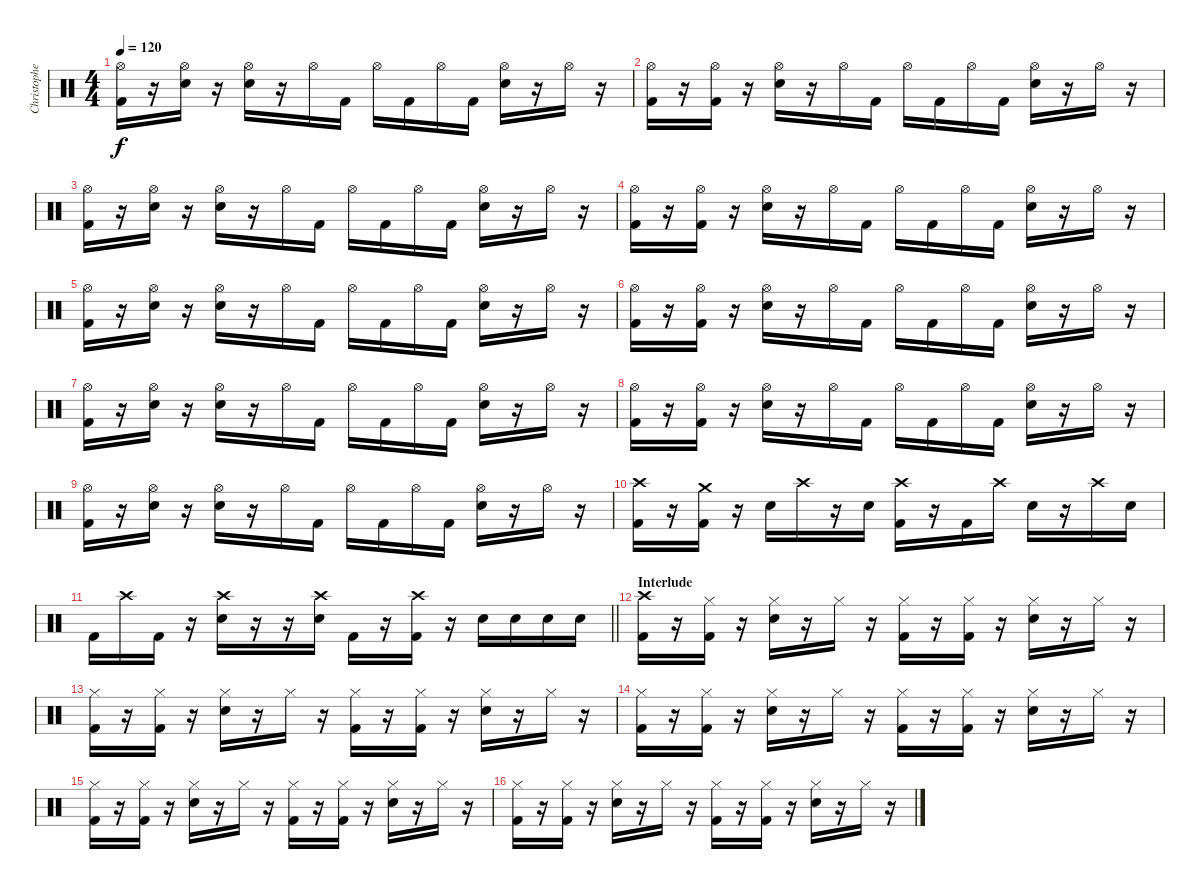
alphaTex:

\track ("Christopher - Drums" "Christophe") {instrument percussion}
\staff {score}
\articulation defaults
\ts (4 4)
\tempo 120
\clef neutral
\ks c
("Hi-Hat (open)" "Kick (hit) 2").16{dy f} r.16 ("Hi-Hat (open)" "Electric Snare (hit)").16 r.16 ("Hi-Hat (open)" "Electric Snare (hit)").16 r.16 "Hi-Hat (open)".16 "Kick (hit) 2".16 "Hi-Hat (open)".16 "Kick (hit) 2".16 "Hi-Hat (open)".16 "Kick (hit) 2".16 ("Hi-Hat (open)" "Electric Snare (hit)").16 r.16 "Hi-Hat (open)".16 r.16 |
("Hi-Hat (open)" "Kick (hit) 2").16 r.16 ("Hi-Hat (open)" "Kick (hit) 2").16 r.16 ("Hi-Hat (open)" "Electric Snare (hit)").16 r.16 "Hi-Hat (open)".16 "Kick (hit) 2".16 "Hi-Hat (open)".16 "Kick (hit) 2".16 "Hi-Hat (open)".16 "Kick (hit) 2".16 ("Hi-Hat (open)" "Electric Snare (hit)").16 r.16 "Hi-Hat (open)".16 r.16 |
("Hi-Hat (open)" "Kick (hit) 2").16 r.16 ("Hi-Hat (open)" "Electric Snare (hit)").16 r.16 ("Hi-Hat (open)" "Electric Snare (hit)").16 r.16 "Hi-Hat (open)".16 "Kick (hit) 2".16 "Hi-Hat (open)".16 "Kick (hit) 2".16 "Hi-Hat (open)".16 "Kick (hit) 2".16 ("Hi-Hat (open)" "Electric Snare (hit)").16 r.16 "Hi-Hat (open)".16 r.16 |
("Hi-Hat (open)" "Kick (hit) 2").16 r.16 ("Hi-Hat (open)" "Kick (hit) 2").16 r.16 ("Hi-Hat (open)" "Electric Snare (hit)").16 r.16 "Hi-Hat (open)".16 "Kick (hit) 2".16 "Hi-Hat (open)".16 "Kick (hit) 2".16 "Hi-Hat (open)".16 "Kick (hit) 2".16 ("Hi-Hat (open)" "Electric Snare (hit)").16 r.16 "Hi-Hat (open)".16 r.16 |
("Hi-Hat (open)" "Kick (hit) 2").16 r.16 ("Hi-Hat (open)" "Electric Snare (hit)").16 r.16 ("Hi-Hat (open)" "Electric Snare (hit)").16 r.16 "Hi-Hat (open)".16 "Kick (hit) 2".16 "Hi-Hat (open)".16 "Kick (hit) 2".16 "Hi-Hat (open)".16 "Kick (hit) 2".16 ("Hi-Hat (open)" "Electric Snare (hit)").16 r.16 "Hi-Hat (open)".16 r.16 |
("Hi-Hat (open)" "Kick (hit) 2").16 r.16 ("Hi-Hat (open)" "Kick (hit) 2").16 r.16 ("Hi-Hat (open)" "Electric Snare (hit)").16 r.16 "Hi-Hat (open)".16 "Kick (hit) 2".16 "Hi-Hat (open)".16 "Kick (hit) 2".16 "Hi-Hat (open)".16 "Kick (hit) 2".16 ("Hi-Hat (open)" "Electric Snare (hit)").16 r.16 "Hi-Hat (open)".16 r.16 |
("Hi-Hat (open)" "Kick (hit) 2").16 r.16 ("Hi-Hat (open)" "Electric Snare (hit)").16 r.16 ("Hi-Hat (open)" "Electric Snare (hit)").16 r.16 "Hi-Hat (open)".16 "Kick (hit) 2".16 "Hi-Hat (open)".16 "Kick (hit) 2".16 "Hi-Hat (open)".16 "Kick (hit) 2".16 ("Hi-Hat (open)" "Electric Snare (hit)").16 r.16 "Hi-Hat (open)".16 r.16 |
("Hi-Hat (open)" "Kick (hit) 2").16 r.16 ("Hi-Hat (open)" "Kick (hit) 2").16 r.16 ("Hi-Hat (open)" "Electric Snare (hit)").16 r.16 "Hi-Hat (open)".16 "Kick (hit) 2".16 "Hi-Hat (open)".16 "Kick (hit) 2".16 "Hi-Hat (open)".16 "Kick (hit) 2".16 ("Hi-Hat (open)" "Electric Snare (hit)").16 r.16 "Hi-Hat (open)".16 r.16 |
("Hi-Hat (open)" "Kick (hit) 2").16 r.16 ("Hi-Hat (open)" "Electric Snare (hit)").16 r.16 ("Hi-Hat (open)" "Electric Snare (hit)").16 r.16 "Hi-Hat (open)".16 "Kick (hit) 2".16 "Hi-Hat (open)".16 "Kick (hit) 2".16 "Hi-Hat (open)".16 "Kick (hit) 2".16 ("Hi-Hat (open)" "Electric Snare (hit)").16 r.16 "Hi-Hat (open)".16 r.16 |
("Crash high (hit)" "Kick (hit) 2").16 r.16 ("Crash medium (hit)" "Kick (hit) 2").16 r.16 "Electric Snare (hit)".16 "Crash high (hit)".16 r.16 "Electric Snare (hit)".16 ("Crash high (hit)" "Kick (hit) 2").16 r.16 "Kick (hit) 2".16 "Crash high (hit)".16 "Electric Snare (hit)".16 r.16 "Crash high (hit)".16 "Electric Snare (hit)".16 |
\barLineRight lightlight "Kick (hit) 2".16 "Crash high (hit)".16 "Kick (hit) 2".16
r.16 ("Crash high (hit)" "Electric Snare (hit)").16 r.16 r.16 ("Crash high (hit)" "Electric Snare (hit)").16 "Kick (hit) 2".16 r.16 ("Crash high (hit)" "Kick (hit) 2").16 r.16 "Electric Snare (hit)".16 "Electric Snare (hit)".16 "Electric Snare (hit)".16 "Electric Snare (hit)".16 |
\section ("" "Interlude")
("Crash high (hit)" "Kick (hit) 2").16 r.16 ("Hi-Hat (closed)" "Kick (hit) 2").16 r.16 ("Hi-Hat (closed)" "Electric Snare (hit)").16 r.16 "Hi-Hat (closed)".16 r.16 ("Hi-Hat (closed)" "Kick (hit) 2").16 r.16 ("Hi-Hat (closed)" "Kick (hit) 2").16 r.16 ("Hi-Hat (closed)" "Electric Snare (hit)").16 r.16 "Hi-Hat (closed)".16 r.16 |
("Hi-Hat (closed)" "Kick (hit) 2").16 r.16 ("Hi-Hat (closed)" "Kick (hit) 2").16 r.16 ("Hi-Hat (closed)" "Electric Snare (hit)").16 r.16 "Hi-Hat (closed)".16 r.16 ("Hi-Hat (closed)" "Kick (hit) 2").16 r.16 ("Hi-Hat (closed)" "Kick (hit) 2").16 r.16 ("Hi-Hat (closed)" "Electric Snare (hit)").16 r.16 "Hi-Hat (closed)".16 r.16 |
("Hi-Hat (closed)" "Kick (hit) 2").16 r.16 ("Hi-Hat (closed)" "Kick (hit) 2").16 r.16 ("Hi-Hat (closed)" "Electric Snare (hit)").16 r.16 "Hi-Hat (closed)".16 r.16 ("Hi-Hat (closed)" "Kick (hit) 2").16 r.16 ("Hi-Hat (closed)" "Kick (hit) 2").16 r.16 ("Hi-Hat (closed)" "Electric Snare (hit)").16 r.16 "Hi-Hat (closed)".16 r.16 |
("Hi-Hat (closed)" "Kick (hit) 2").16 r.16 ("Hi-Hat (closed)" "Kick (hit) 2").16 r.16 ("Hi-Hat (closed)" "Electric Snare (hit)").16 r.16 "Hi-Hat (closed)".16 r.16 ("Hi-Hat (closed)" "Kick (hit) 2").16 r.16 ("Hi-Hat (closed)" "Kick (hit) 2").16 r.16 ("Hi-Hat (closed)" "Electric Snare (hit)").16 r.16 "Hi-Hat (closed)".16 r.16 |
("Hi-Hat (closed)" "Kick (hit) 2").16 r.16 ("Hi-Hat (closed)" "Kick (hit) 2").16 r.16 ("Hi-Hat (closed)" "Electric Snare (hit)").16 r.16 "Hi-Hat (closed)".16 r.16 ("Hi-Hat (closed)" "Kick (hit) 2").16 r.16 ("Hi-Hat (closed)" "Kick (hit) 2").16 r.16 ("Hi-Hat (closed)" "Electric Snare (hit)").16 r.16 "Hi-Hat (closed)".16 r.16
